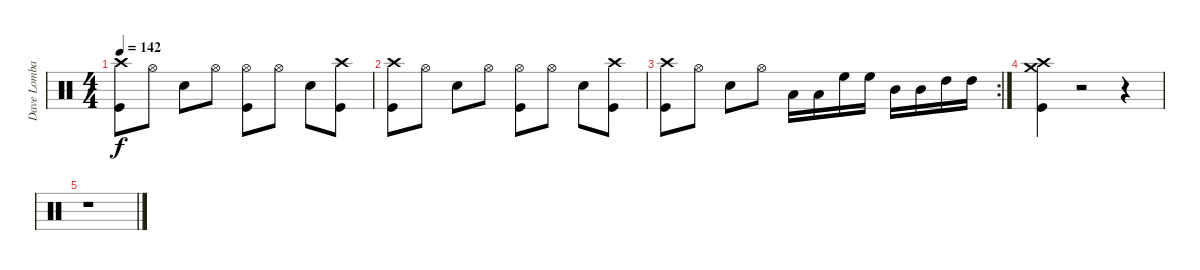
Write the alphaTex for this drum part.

\track ("Dave Lombardo" "Dave Lomba") {instrument percussion}
\staff {score}
\articulation defaults
\ts (4 4)
\tempo 142
\clef neutral
\ks c
("Crash high (hit)" "Kick (hit)").8{dy f} "Hi-Hat (open)".8 "Snare (hit) 2".8 "Hi-Hat (open)".8 ("Hi-Hat (open)" "Kick (hit)").8 "Hi-Hat (open)".8 "Snare (hit) 2".8 ("Crash high (hit)" "Kick (hit)").8 |
("Kick (hit)" "Crash high (hit)").8 "Hi-Hat (open)".8 "Snare (hit) 2".8 "Hi-Hat (open)".8 ("Hi-Hat (open)" "Kick (hit)").8 "Hi-Hat (open)".8 "Snare (hit) 2".8 ("Crash high (hit)" "Kick (hit)").8 |
\rc 2
("Crash high (hit)" "Kick (hit)").8 "Hi-Hat (open)".8 "Snare (hit) 2".8 "Hi-Hat (open)".8 "Low Floor Tom (hit)".16 "Low Floor Tom (hit)".16 "High Floor Tom (hit)".16 "High Floor Tom (hit)".16 "Mid Tom (hit)".16 "Mid Tom (hit)".16 "High Tom (hit)".16 "High Tom (hit)".16 |
("Kick (hit)" "Crash medium (hit)" "Crash high (hit)").4 r.2 r.4 |
r.1
